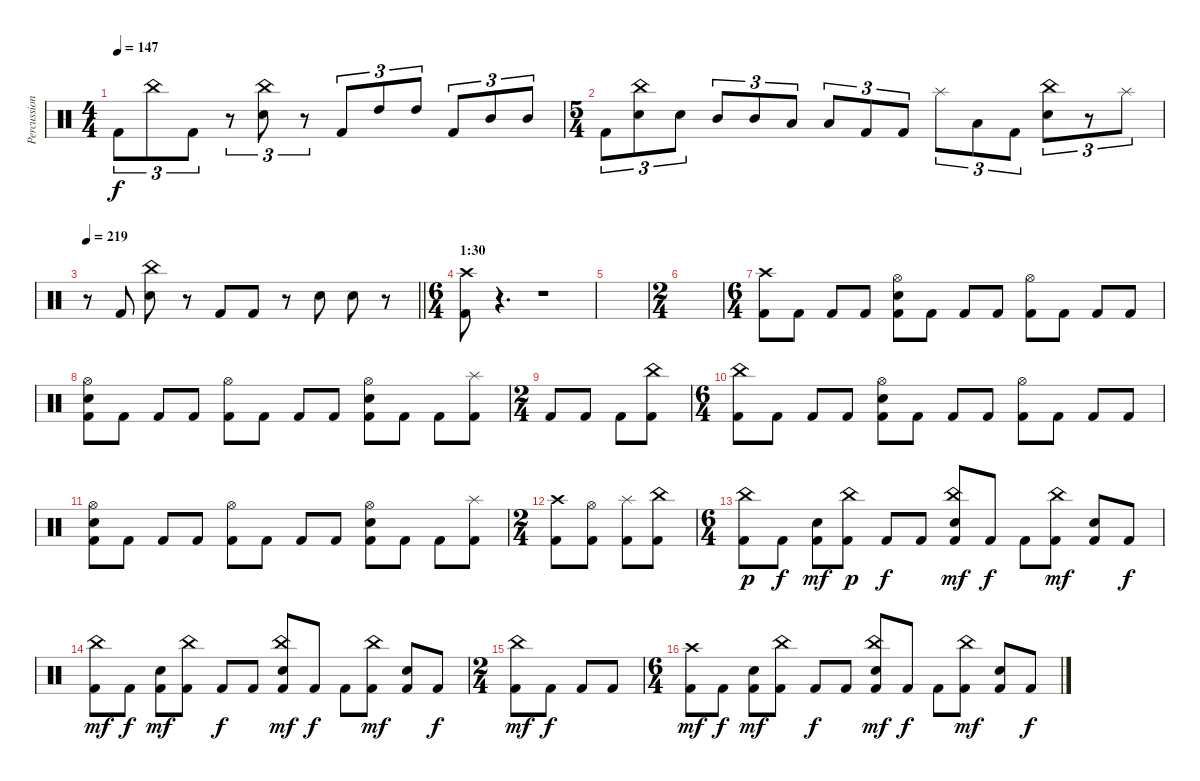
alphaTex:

\track ("Percussion" "Percussion") {instrument percussion}
\staff {score}
\articulation defaults
\ts (4 4)
\tempo 147
\clef neutral
\ks c "Kick (hit) 2".8{tu (3 2) dy f} "China (hit)".8{tu (3 2)} "Kick (hit) 2".8{tu (3 2)}
r.8{tu (3 2)} ("Electric Snare (hit)" "China (hit)").8{tu (3 2)} r.8{tu (3 2)} "Kick (hit) 2".8{tu (3 2)} "High Tom (hit)".8{tu (3 2)} "High Tom (hit)".8{tu (3 2)} "Kick (hit) 2".8{tu (3 2)} "Mid Tom (hit)".8{tu (3 2)} "Mid Tom (hit)".8{tu (3 2)} |
\ts (5 4)
"Kick (hit) 2".8{tu (3 2)} ("Electric Snare (hit)" "China (hit)").8{tu (3 2)} "Electric Snare (hit)".8{tu (3 2)} "Mid Tom (hit)".8{tu (3 2)} "Mid Tom (hit)".8{tu (3 2)} "Low Tom (hit)".8{tu (3 2)} "Low Tom (hit)".8{tu (3 2)} "Kick (hit) 2".8{tu (3 2)} "Kick (hit) 2".8{tu (3 2)} "Splash (hit)".8{tu (3 2)} "Low Tom (hit)".8{tu (3 2)} "Kick (hit) 2".8{tu (3 2)} ("China (hit)" "Electric Snare (hit)").8{tu (3 2)} r.8{tu (3 2)} "Splash (hit)".8{tu (3 2)} |
\tempo 219
\barLineRight lightlight
r.8 "Kick (hit) 2".8 ("China (hit)" "Electric Snare (hit)").8 r.8 "Kick (hit) 2".8 "Kick (hit) 2".8 r.8 "Electric Snare (hit)".8 "Electric Snare (hit)".8 r.8 |
\ts (6 4)
\section ("" "1:30")
("Crash high (hit)" "Kick (hit) 2").8 r.4{d volume 0} r.1 |
|
\ts (2 4)
|
\ts (6 4)
("Kick (hit) 2" "Crash high (hit)").8{volume 13} "Kick (hit) 2".8 "Kick (hit) 2".8 "Kick (hit) 2".8 ("Kick (hit) 2" "Hi-Hat (open)" "Electric Snare (hit)").8 "Kick (hit) 2".8 "Kick (hit) 2".8 "Kick (hit) 2".8 ("Kick (hit) 2" "Hi-Hat (open)").8 "Kick (hit) 2".8 "Kick (hit) 2".8 "Kick (hit) 2".8 |
("Kick (hit) 2" "Hi-Hat (open)" "Electric Snare (hit)").8 "Kick (hit) 2".8 "Kick (hit) 2".8 "Kick (hit) 2".8 ("Kick (hit) 2" "Hi-Hat (open)").8 "Kick (hit) 2".8 "Kick (hit) 2".8 "Kick (hit) 2".8 ("Kick (hit) 2" "Hi-Hat (open)" "Electric Snare (hit)").8 "Kick (hit) 2".8 "Kick (hit) 2".8 ("Kick (hit) 2" "Splash (hit)").8 |
\ts (2 4)
"Kick (hit) 2".8 "Kick (hit) 2".8 "Kick (hit) 2".8 ("Kick (hit) 2" "China (hit)").8 |
\ts (6 4)
("Kick (hit) 2" "China (hit)").8 "Kick (hit) 2".8 "Kick (hit) 2".8 "Kick (hit) 2".8 ("Kick (hit) 2" "Hi-Hat (open)" "Electric Snare (hit)").8 "Kick (hit) 2".8 "Kick (hit) 2".8 "Kick (hit) 2".8 ("Kick (hit) 2" "Hi-Hat (open)").8 "Kick (hit) 2".8 "Kick (hit) 2".8 "Kick (hit) 2".8 |
("Kick (hit) 2" "Hi-Hat (open)" "Electric Snare (hit)").8 "Kick (hit) 2".8 "Kick (hit) 2".8 "Kick (hit) 2".8 ("Kick (hit) 2" "Hi-Hat (open)").8 "Kick (hit) 2".8 "Kick (hit) 2".8 "Kick (hit) 2".8 ("Kick (hit) 2" "Hi-Hat (open)" "Electric Snare (hit)").8 "Kick (hit) 2".8 "Kick (hit) 2".8 ("Kick (hit) 2" "Splash (hit)").8 |
\ts (2 4)
("Kick (hit) 2" "Crash high (hit)").8 ("Kick (hit) 2" "Hi-Hat (open)").8 ("Kick (hit) 2" "Splash (hit)").8 ("Kick (hit) 2" "China (hit)").8 |
\ts (6 4)
("Kick (hit) 2" "China (hit)").8{dy p} "Kick (hit) 2".8{dy f} ("Kick (hit) 2" "Electric Snare (hit)").8{dy mf} ("Kick (hit) 2" "China (hit)").8{dy p} "Kick (hit) 2".8{dy f} "Kick (hit) 2".8 ("Kick (hit) 2" "China (hit)" "Electric Snare (hit)").8{dy mf} "Kick (hit) 2".8{dy f} "Kick (hit) 2".8 ("Kick (hit) 2" "China (hit)").8{dy mf} ("Kick (hit) 2" "Electric Snare (hit)").8 "Kick (hit) 2".8{dy f} |
("Kick (hit) 2" "China (hit)").8{dy mf} "Kick (hit) 2".8{dy f} ("Kick (hit) 2" "Electric Snare (hit)").8{dy mf} ("Kick (hit) 2" "China (hit)").8 "Kick (hit) 2".8{dy f} "Kick (hit) 2".8 ("Kick (hit) 2" "Electric Snare (hit)" "China (hit)").8{dy mf} "Kick (hit) 2".8{dy f} "Kick (hit) 2".8 ("Kick (hit) 2" "China (hit)").8{dy mf} ("Kick (hit) 2" "Electric Snare (hit)").8 "Kick (hit) 2".8{dy f} |
\ts (2 4)
("Kick (hit) 2" "China (hit)").8{dy mf} "Kick (hit) 2".8{dy f} "Kick (hit) 2".8 "Kick (hit) 2".8 |
\ts (6 4)
("Kick (hit) 2" "Crash high (hit)").8{dy mf} "Kick (hit) 2".8{dy f} ("Kick (hit) 2" "Electric Snare (hit)").8{dy mf} ("Kick (hit) 2" "China (hit)").8 "Kick (hit) 2".8{dy f} "Kick (hit) 2".8 ("Kick (hit) 2" "Electric Snare (hit)" "China (hit)").8{dy mf} "Kick (hit) 2".8{dy f} "Kick (hit) 2".8 ("Kick (hit) 2" "China (hit)").8{dy mf} ("Kick (hit) 2" "Electric Snare (hit)").8 "Kick (hit) 2".8{dy f}
